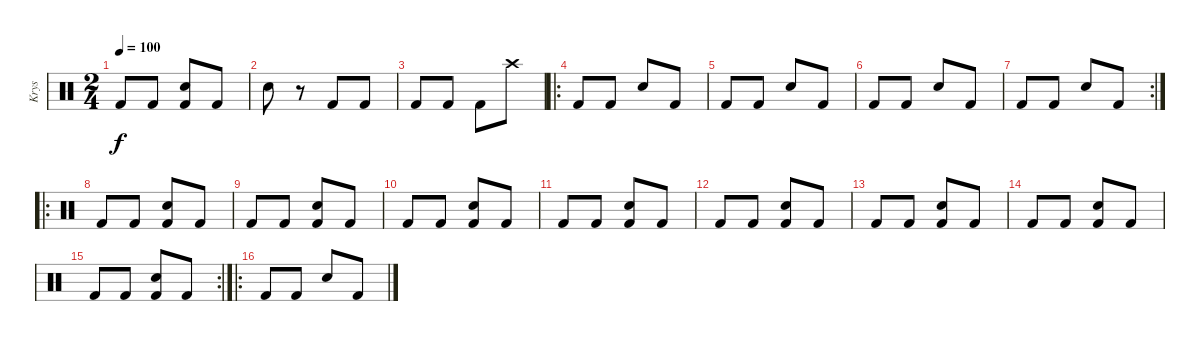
\track ("Krys" "Krys") {instrument percussion}
\staff {score}
\articulation defaults
\ts (2 4)
\tempo 100
\clef neutral
\ks c "Kick (hit) 2".8{dy f} "Kick (hit) 2".8
("Snare (hit) 2" "Kick (hit) 2").8 "Kick (hit) 2".8 |
"Snare (hit) 2".8 r.8 "Kick (hit) 2".8 "Kick (hit) 2".8 |
"Kick (hit) 2".8 "Kick (hit) 2".8 "Kick (hit) 2".8 "Crash high (hit)".8 |
\ro "Kick (hit) 2".8 "Kick (hit) 2".8 "Snare (hit) 2".8 "Kick (hit) 2".8
|
"Kick (hit) 2".8 "Kick (hit) 2".8 "Snare (hit) 2".8 "Kick (hit) 2".8 |
"Kick (hit) 2".8 "Kick (hit) 2".8 "Snare (hit) 2".8 "Kick (hit) 2".8 |
\rc 2 "Kick (hit) 2".8 "Kick (hit) 2".8 "Snare (hit) 2".8 "Kick (hit) 2".8
|
\ro "Kick (hit) 2".8 "Kick (hit) 2".8
("Snare (hit) 2" "Kick (hit) 2").8 "Kick (hit) 2".8 |
"Kick (hit) 2".8 "Kick (hit) 2".8 ("Snare (hit) 2" "Kick (hit) 2").8 "Kick (hit) 2".8 |
"Kick (hit) 2".8 "Kick (hit) 2".8 ("Snare (hit) 2" "Kick (hit) 2").8 "Kick (hit) 2".8 |
"Kick (hit) 2".8 "Kick (hit) 2".8 ("Snare (hit) 2" "Kick (hit) 2").8 "Kick (hit) 2".8 |
"Kick (hit) 2".8 "Kick (hit) 2".8 ("Snare (hit) 2" "Kick (hit) 2").8 "Kick (hit) 2".8 |
"Kick (hit) 2".8 "Kick (hit) 2".8 ("Snare (hit) 2" "Kick (hit) 2").8 "Kick (hit) 2".8 |
"Kick (hit) 2".8 "Kick (hit) 2".8 ("Snare (hit) 2" "Kick (hit) 2").8 "Kick (hit) 2".8 |
\rc 2 "Kick (hit) 2".8 "Kick (hit) 2".8
("Snare (hit) 2" "Kick (hit) 2").8 "Kick (hit) 2".8 |
\ro "Kick (hit) 2".8 "Kick (hit) 2".8 "Snare (hit) 2".8 "Kick (hit) 2".8
